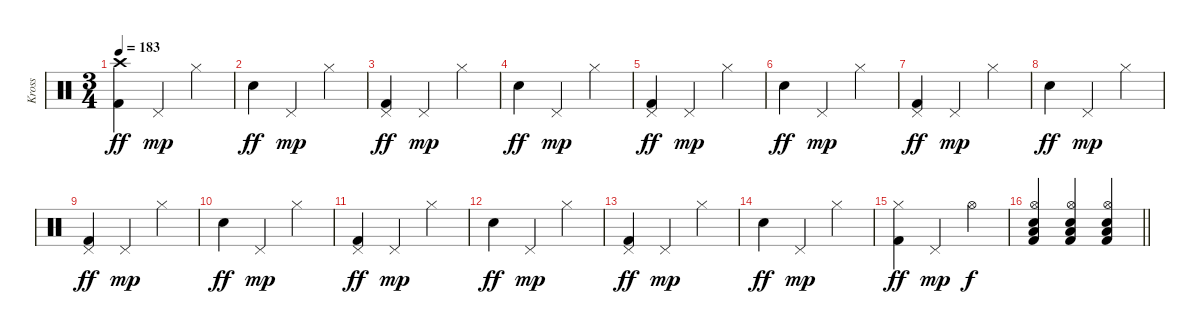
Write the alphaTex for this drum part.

\track ("Kross" "Kross") {instrument percussion}
\staff {score}
\articulation defaults
\ts (3 4)
\tempo 183
\clef neutral
\ks c
("Crash high (hit)" "Kick (hit) 2").4{dy ff} "Pedal Hi-Hat (hit)".4{dy mp} "Hi-Hat (closed)".4 |
"Electric Snare (hit)".4{dy ff} "Pedal Hi-Hat (hit)".4{dy mp} "Hi-Hat (closed)".4 |
("Pedal Hi-Hat (hit)" "Kick (hit) 2").4{dy ff} "Pedal Hi-Hat (hit)".4{dy mp} "Hi-Hat (closed)".4 |
"Electric Snare (hit)".4{dy ff} "Pedal Hi-Hat (hit)".4{dy mp} "Hi-Hat (closed)".4 |
("Pedal Hi-Hat (hit)" "Kick (hit) 2").4{dy ff} "Pedal Hi-Hat (hit)".4{dy mp} "Hi-Hat (closed)".4 |
"Electric Snare (hit)".4{dy ff} "Pedal Hi-Hat (hit)".4{dy mp} "Hi-Hat (closed)".4 |
("Pedal Hi-Hat (hit)" "Kick (hit) 2").4{dy ff} "Pedal Hi-Hat (hit)".4{dy mp} "Hi-Hat (closed)".4 |
"Electric Snare (hit)".4{dy ff} "Pedal Hi-Hat (hit)".4{dy mp} "Hi-Hat (closed)".4 |
("Pedal Hi-Hat (hit)" "Kick (hit) 2").4{dy ff} "Pedal Hi-Hat (hit)".4{dy mp} "Hi-Hat (closed)".4 |
"Electric Snare (hit)".4{dy ff} "Pedal Hi-Hat (hit)".4{dy mp} "Hi-Hat (closed)".4 |
("Pedal Hi-Hat (hit)" "Kick (hit) 2").4{dy ff} "Pedal Hi-Hat (hit)".4{dy mp} "Hi-Hat (closed)".4 |
"Electric Snare (hit)".4{dy ff} "Pedal Hi-Hat (hit)".4{dy mp} "Hi-Hat (closed)".4 |
("Pedal Hi-Hat (hit)" "Kick (hit) 2").4{dy ff} "Pedal Hi-Hat (hit)".4{dy mp} "Hi-Hat (closed)".4 |
"Electric Snare (hit)".4{dy ff} "Pedal Hi-Hat (hit)".4{dy mp} "Hi-Hat (closed)".4 |
("Hi-Hat (closed)" "Kick (hit) 2").4{dy ff} "Pedal Hi-Hat (hit)".4{dy mp} "Hi-Hat (open)".4{dy f} |
\barLineRight lightlight
("Hi-Hat (open)" "Low Floor Tom (hit)" "Electric Snare (hit)" "Kick (hit) 2").4 ("Hi-Hat (open)" "Low Floor Tom (hit)" "Electric Snare (hit)" "Kick (hit) 2").4 ("Hi-Hat (open)" "Low Floor Tom (hit)" "Electric Snare (hit)" "Kick (hit) 2").4
